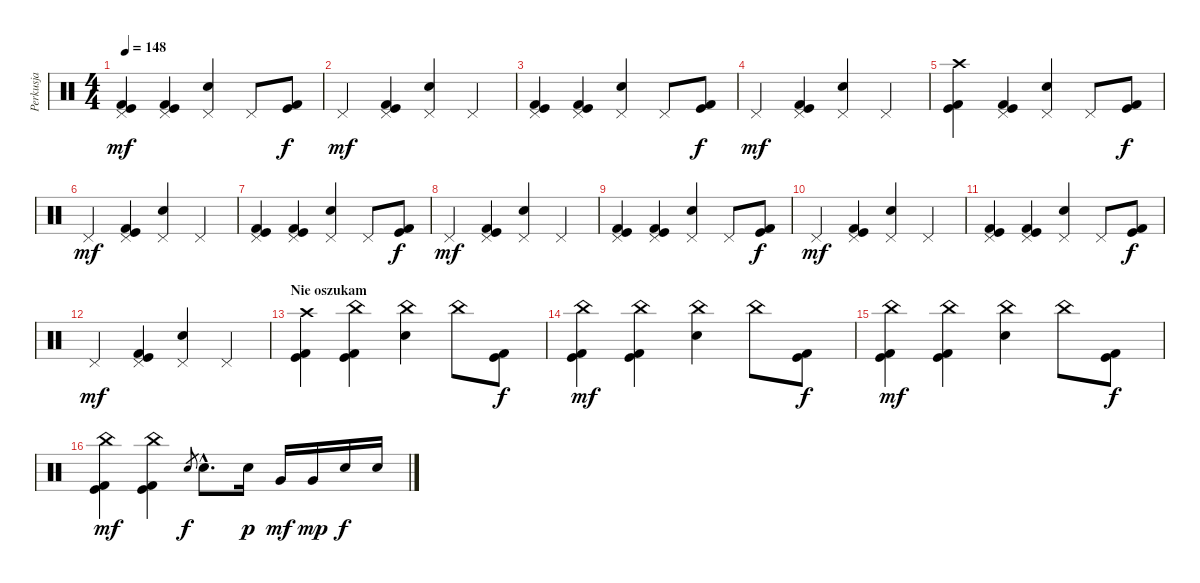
\track ("Perkusja" "Perkusja") {instrument percussion}
\staff {score}
\articulation defaults
\ts (4 4)
\tempo 148
\clef neutral
\ks c
("Kick (hit) 2" "Kick (hit)" "Pedal Hi-Hat (hit)").4{dy mf} ("Kick (hit) 2" "Kick (hit)" "Pedal Hi-Hat (hit)").4 ("Snare (hit) 2" "Pedal Hi-Hat (hit)").4 "Pedal Hi-Hat (hit)".8 ("Kick (hit) 2" "Kick (hit)").8{dy f} |
"Pedal Hi-Hat (hit)".4{dy mf} ("Kick (hit)" "Kick (hit) 2" "Pedal Hi-Hat (hit)").4 ("Snare (hit) 2" "Pedal Hi-Hat (hit)").4 "Pedal Hi-Hat (hit)".4 |
("Kick (hit) 2" "Kick (hit)" "Pedal Hi-Hat (hit)").4 ("Kick (hit) 2" "Kick (hit)" "Pedal Hi-Hat (hit)").4 ("Snare (hit) 2" "Pedal Hi-Hat (hit)").4 "Pedal Hi-Hat (hit)".8 ("Kick (hit) 2" "Kick (hit)").8{dy f} |
"Pedal Hi-Hat (hit)".4{dy mf} ("Kick (hit)" "Kick (hit) 2" "Pedal Hi-Hat (hit)").4 ("Snare (hit) 2" "Pedal Hi-Hat (hit)").4 "Pedal Hi-Hat (hit)".4 |
("Kick (hit) 2" "Kick (hit)" "Crash high (hit)").4 ("Kick (hit) 2" "Kick (hit)" "Pedal Hi-Hat (hit)").4 ("Snare (hit) 2" "Pedal Hi-Hat (hit)").4 "Pedal Hi-Hat (hit)".8 ("Kick (hit) 2" "Kick (hit)").8{dy f} |
"Pedal Hi-Hat (hit)".4{dy mf} ("Kick (hit)" "Kick (hit) 2" "Pedal Hi-Hat (hit)").4 ("Snare (hit) 2" "Pedal Hi-Hat (hit)").4 "Pedal Hi-Hat (hit)".4 |
("Kick (hit) 2" "Kick (hit)" "Pedal Hi-Hat (hit)").4 ("Kick (hit) 2" "Kick (hit)" "Pedal Hi-Hat (hit)").4 ("Snare (hit) 2" "Pedal Hi-Hat (hit)").4 "Pedal Hi-Hat (hit)".8 ("Kick (hit) 2" "Kick (hit)").8{dy f} |
"Pedal Hi-Hat (hit)".4{dy mf} ("Kick (hit)" "Kick (hit) 2" "Pedal Hi-Hat (hit)").4 ("Snare (hit) 2" "Pedal Hi-Hat (hit)").4 "Pedal Hi-Hat (hit)".4 |
("Kick (hit) 2" "Kick (hit)" "Pedal Hi-Hat (hit)").4 ("Kick (hit) 2" "Kick (hit)" "Pedal Hi-Hat (hit)").4 ("Snare (hit) 2" "Pedal Hi-Hat (hit)").4 "Pedal Hi-Hat (hit)".8 ("Kick (hit) 2" "Kick (hit)").8{dy f} |
"Pedal Hi-Hat (hit)".4{dy mf} ("Kick (hit)" "Kick (hit) 2" "Pedal Hi-Hat (hit)").4 ("Snare (hit) 2" "Pedal Hi-Hat (hit)").4 "Pedal Hi-Hat (hit)".4 |
("Kick (hit) 2" "Kick (hit)" "Pedal Hi-Hat (hit)").4 ("Kick (hit) 2" "Kick (hit)" "Pedal Hi-Hat (hit)").4 ("Snare (hit) 2" "Pedal Hi-Hat (hit)").4 "Pedal Hi-Hat (hit)".8 ("Kick (hit) 2" "Kick (hit)").8{dy f} |
"Pedal Hi-Hat (hit)".4{dy mf} ("Kick (hit)" "Kick (hit) 2" "Pedal Hi-Hat (hit)").4 ("Snare (hit) 2" "Pedal Hi-Hat (hit)").4 "Pedal Hi-Hat (hit)".4 |
\section ("" "Nie oszukam")
("Kick (hit) 2" "Kick (hit)" "Crash high (hit)").4 ("Kick (hit) 2" "Kick (hit)" "China (hit)").4 ("Snare (hit) 2" "China (hit)").4 "China (hit)".8 ("Kick (hit) 2" "Kick (hit)").8{dy f} |
("Kick (hit) 2" "Kick (hit)" "China (hit)").4{dy mf} ("Kick (hit) 2" "Kick (hit)" "China (hit)").4 ("Snare (hit) 2" "China (hit)").4 "China (hit)".8 ("Kick (hit) 2" "Kick (hit)").8{dy f} |
("Kick (hit) 2" "Kick (hit)" "China (hit)").4{dy mf} ("Kick (hit) 2" "Kick (hit)" "China (hit)").4 ("Snare (hit) 2" "China (hit)").4 "China (hit)".8 ("Kick (hit) 2" "Kick (hit)").8{dy f} |
("Kick (hit) 2" "Kick (hit)" "China (hit)").4{dy mf} ("Kick (hit) 2" "Kick (hit)" "China (hit)").4 "Snare (hit) 2".8{gr dy f} "Snare (hit) 2"{hac}.8{d} "Snare (hit) 2".16{dy p} "Very Low Tom (hit)".16{dy mf} "Very Low Tom (hit)".16{dy mp} "Snare (hit) 2".16{dy f} "Snare (hit) 2".16
